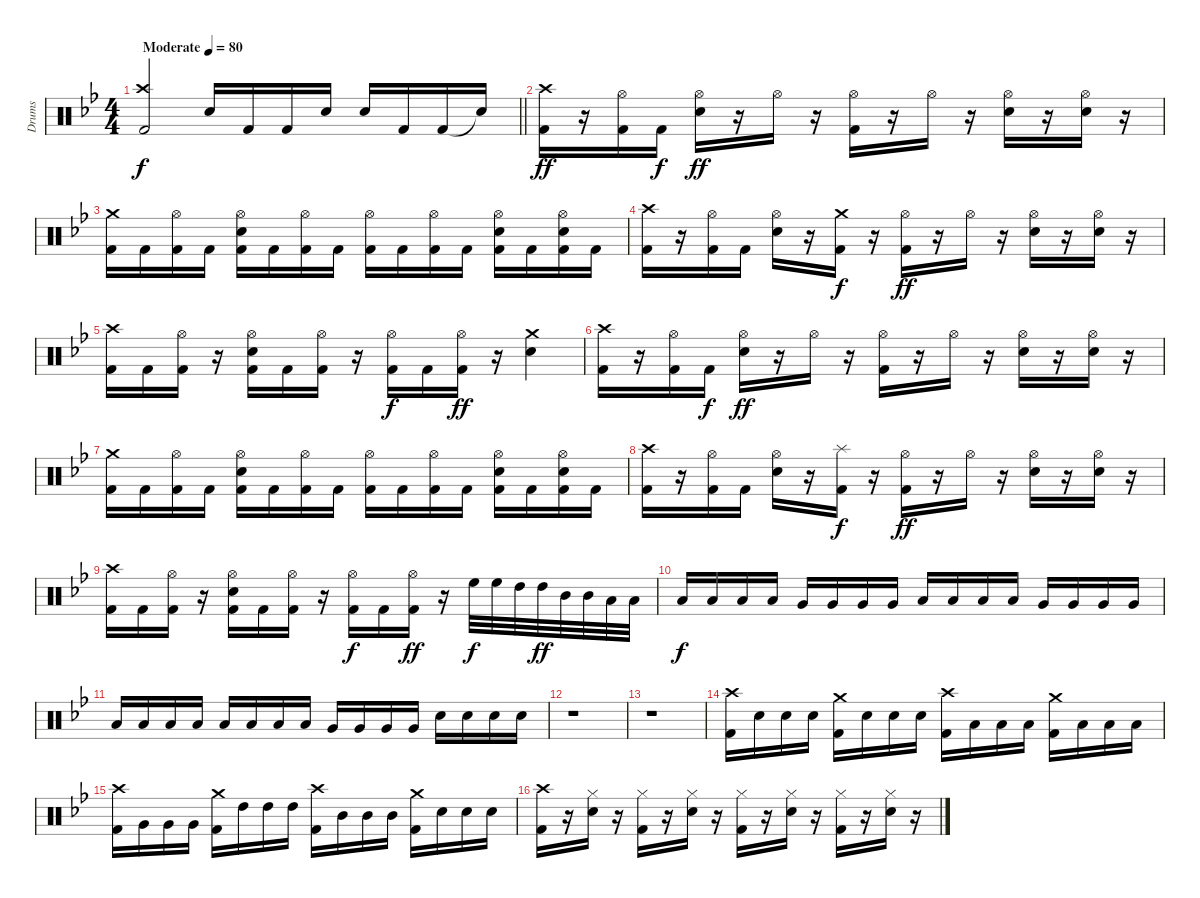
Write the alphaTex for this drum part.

\track ("Drums" "Drums") {instrument percussion}
\staff {score}
\articulation defaults
\ts (4 4)
\tempo (80 "Moderate")
\clef neutral
\barLineRight lightlight
\ks gminor
("Kick (hit) 2" "Crash high (hit)").2{dy f beam Up} "Electric Snare (hit)".16 "Kick (hit) 2".16 "Kick (hit) 2".16 "Electric Snare (hit)".16 "Electric Snare (hit)".16 "Kick (hit) 2".16 "Kick (hit) 2".16 "Snare (hit)"{t}.16 |
("Kick (hit) 2" "Crash high (hit)").16{dy ff} r.16 ("Kick (hit) 2" "Hi-Hat (open)").16 "Kick (hit) 2".16{dy f} ("Electric Snare (hit)" "Hi-Hat (open)").16{dy ff} r.16 "Hi-Hat (open)".16 r.16 ("Kick (hit) 2" "Hi-Hat (open)").16 r.16 "Hi-Hat (open)".16 r.16 ("Electric Snare (hit)" "Hi-Hat (open)").16 r.16 ("Electric Snare (hit)" "Hi-Hat (open)").16 r.16 |
("Kick (hit) 2" "Crash medium (hit)").16 "Kick (hit) 2".16 ("Kick (hit) 2" "Hi-Hat (open)").16 "Kick (hit) 2".16 ("Kick (hit) 2" "Electric Snare (hit)" "Hi-Hat (open)").16 "Kick (hit) 2".16 ("Kick (hit) 2" "Hi-Hat (open)").16 "Kick (hit) 2".16 ("Kick (hit) 2" "Hi-Hat (open)").16 "Kick (hit) 2".16 ("Kick (hit) 2" "Hi-Hat (open)").16 "Kick (hit) 2".16 ("Kick (hit) 2" "Electric Snare (hit)" "Hi-Hat (open)").16 "Kick (hit) 2".16 ("Kick (hit) 2" "Electric Snare (hit)" "Hi-Hat (open)").16 "Kick (hit) 2".16 |
("Kick (hit) 2" "Crash high (hit)").16 r.16 ("Kick (hit) 2" "Hi-Hat (open)").16 "Kick (hit) 2".16 ("Electric Snare (hit)" "Hi-Hat (open)").16 r.16 ("Kick (hit) 2" "Crash medium (hit)").16{dy f} r.16 ("Kick (hit) 2" "Hi-Hat (open)").16{dy ff} r.16 "Hi-Hat (open)".16 r.16 ("Electric Snare (hit)" "Hi-Hat (open)").16 r.16 ("Electric Snare (hit)" "Hi-Hat (open)").16 r.16 |
("Kick (hit) 2" "Crash high (hit)").16 "Kick (hit) 2".16 ("Kick (hit) 2" "Hi-Hat (open)").16 r.16 ("Kick (hit) 2" "Electric Snare (hit)" "Hi-Hat (open)").16 "Kick (hit) 2".16 ("Kick (hit) 2" "Hi-Hat (open)").16 r.16 ("Hi-Hat (open)" "Kick (hit) 2").16{dy f} "Kick (hit) 2".16 ("Kick (hit) 2" "Hi-Hat (open)").16{dy ff} r.16 ("Electric Snare (hit)" "Crash medium (hit)").4 |
("Kick (hit) 2" "Crash high (hit)").16 r.16 ("Kick (hit) 2" "Hi-Hat (open)").16 "Kick (hit) 2".16{dy f} ("Electric Snare (hit)" "Hi-Hat (open)").16{dy ff} r.16 "Hi-Hat (open)".16 r.16 ("Kick (hit) 2" "Hi-Hat (open)").16 r.16 "Hi-Hat (open)".16 r.16 ("Electric Snare (hit)" "Hi-Hat (open)").16 r.16 ("Electric Snare (hit)" "Hi-Hat (open)").16 r.16 |
("Kick (hit) 2" "Crash medium (hit)").16 "Kick (hit) 2".16 ("Kick (hit) 2" "Hi-Hat (open)").16 "Kick (hit) 2".16 ("Kick (hit) 2" "Electric Snare (hit)" "Hi-Hat (open)").16 "Kick (hit) 2".16 ("Kick (hit) 2" "Hi-Hat (open)").16 "Kick (hit) 2".16 ("Kick (hit) 2" "Hi-Hat (open)").16 "Kick (hit) 2".16 ("Kick (hit) 2" "Hi-Hat (open)").16 "Kick (hit) 2".16 ("Kick (hit) 2" "Electric Snare (hit)" "Hi-Hat (open)").16 "Kick (hit) 2".16 ("Kick (hit) 2" "Electric Snare (hit)" "Hi-Hat (open)").16 "Kick (hit) 2".16 |
("Kick (hit) 2" "Crash high (hit)").16 r.16 ("Kick (hit) 2" "Hi-Hat (open)").16 "Kick (hit) 2".16 ("Electric Snare (hit)" "Hi-Hat (open)").16 r.16 ("Kick (hit) 2" "Splash (hit)").16{dy f} r.16 ("Kick (hit) 2" "Hi-Hat (open)").16{dy ff} r.16 "Hi-Hat (open)".16 r.16 ("Electric Snare (hit)" "Hi-Hat (open)").16 r.16 ("Electric Snare (hit)" "Hi-Hat (open)").16 r.16 |
("Kick (hit) 2" "Crash high (hit)").16 "Kick (hit) 2".16 ("Kick (hit) 2" "Hi-Hat (open)").16 r.16 ("Kick (hit) 2" "Electric Snare (hit)" "Hi-Hat (open)").16 "Kick (hit) 2".16 ("Kick (hit) 2" "Hi-Hat (open)").16 r.16 ("Hi-Hat (open)" "Kick (hit) 2").16{dy f} "Kick (hit) 2".16 ("Kick (hit) 2" "Hi-Hat (open)").16{dy ff} r.16 "High Floor Tom (hit)".32{dy f} "High Floor Tom (hit)".32 "High Tom (hit)".32 "High Tom (hit)".32{dy ff} "Mid Tom (hit)".32 "Mid Tom (hit)".32 "Low Tom (hit)".32 "Low Tom (hit)".32 |
"Low Floor Tom (hit)".16{dy f} "Low Floor Tom (hit)".16 "Low Floor Tom (hit)".16 "Low Floor Tom (hit)".16 "Very Low Tom (hit)".16 "Very Low Tom (hit)".16 "Very Low Tom (hit)".16 "Very Low Tom (hit)".16 "Low Tom (hit)".16 "Low Tom (hit)".16 "Low Tom (hit)".16 "Low Tom (hit)".16 "Very Low Tom (hit)".16 "Very Low Tom (hit)".16 "Very Low Tom (hit)".16 "Very Low Tom (hit)".16 |
"Low Tom (hit)".16 "Low Tom (hit)".16 "Low Tom (hit)".16 "Low Tom (hit)".16 "Low Floor Tom (hit)".16 "Low Floor Tom (hit)".16 "Low Floor Tom (hit)".16 "Low Floor Tom (hit)".16 "Very Low Tom (hit)".16 "Very Low Tom (hit)".16 "Very Low Tom (hit)".16 "Very Low Tom (hit)".16 "Snare (hit) 2".16 "Snare (hit) 2".16 "Snare (hit) 2".16 "Electric Snare (hit)".16 |
r.1 |
r.1 |
("Kick (hit) 2" "Crash high (hit)").16 "Snare (hit) 2".16 "Snare (hit) 2".16 "Snare (hit) 2".16 ("Kick (hit) 2" "Crash medium (hit)").16 "Snare (hit) 2".16 "Snare (hit) 2".16 "Snare (hit) 2".16 ("Kick (hit) 2" "Crash high (hit)").16 "Low Tom (hit)".16 "Low Tom (hit)".16 "Low Tom (hit)".16 ("Kick (hit) 2" "Crash medium (hit)").16 "Low Floor Tom (hit)".16 "Low Floor Tom (hit)".16 "Low Floor Tom (hit)".16 |
("Kick (hit) 2" "Crash high (hit)").16 "Very Low Tom (hit)".16 "Very Low Tom (hit)".16 "Very Low Tom (hit)".16 ("Kick (hit) 2" "Crash medium (hit)").16 "High Tom (hit)".16 "High Tom (hit)".16 "High Tom (hit)".16 ("Kick (hit) 2" "Crash high (hit)").16 "Mid Tom (hit)".16 "Mid Tom (hit)".16 "Mid Tom (hit)".16 ("Kick (hit) 2" "Crash medium (hit)").16 "Electric Snare (hit)".16 "Electric Snare (hit)".16 "Electric Snare (hit)".16 |
("Kick (hit) 2" "Crash high (hit)").16 r.16 ("Electric Snare (hit)" "Hi-Hat (closed)").16 r.16 ("Kick (hit) 2" "Hi-Hat (closed)").16 r.16 ("Electric Snare (hit)" "Hi-Hat (closed)").16 r.16 ("Kick (hit) 2" "Hi-Hat (closed)").16 r.16 ("Electric Snare (hit)" "Hi-Hat (closed)").16 r.16 ("Kick (hit) 2" "Hi-Hat (closed)").16 r.16 ("Electric Snare (hit)" "Hi-Hat (closed)").16 r.16
